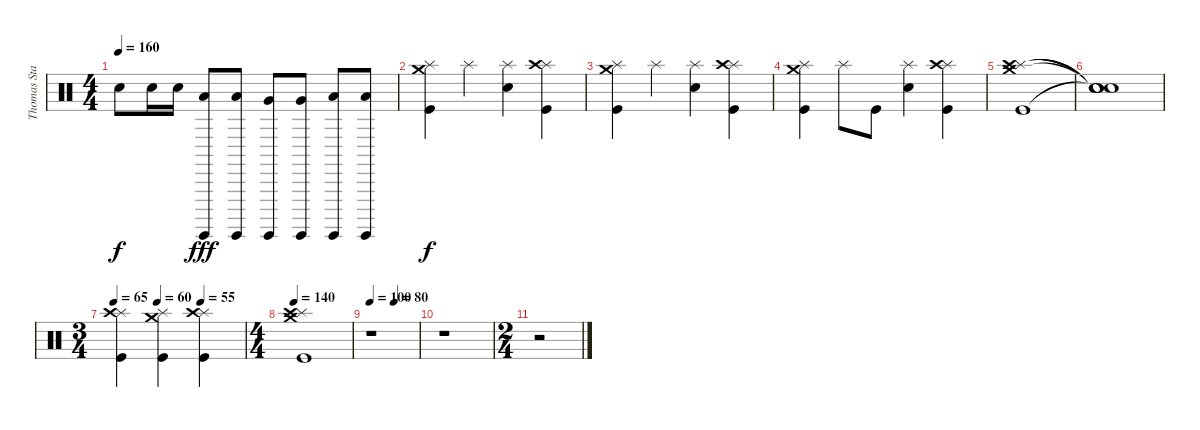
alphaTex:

\track ("Thomas Stauch" "Thomas Sta") {instrument percussion}
\staff {score}
\articulation defaults
\ts (4 4)
\tempo 160
\clef neutral
\ks c "Electric Snare (hit)".8{dy f} "Electric Snare (hit)".16 "Electric Snare (hit)".16
("Surdo (hit)" "Low Tom (hit)").8{dy fff} ("Surdo (hit)" "Low Tom (hit)").8 ("Surdo (hit)" "Very Low Tom (hit)").8 ("Surdo (hit)" "Very Low Tom (hit)").8 ("Surdo (hit)" "Low Floor Tom (hit)").8 ("Surdo (hit)" "Low Floor Tom (hit)").8 |
("Crash medium (hit)" "Splash (hit)" "Kick (hit)").4{dy f} "Splash (hit)".4 ("Splash (hit)" "Electric Snare (hit)").4 ("Splash (hit)" "Crash high (hit)" "Kick (hit)").4 |
("Crash medium (hit)" "Splash (hit)" "Kick (hit)").4 "Splash (hit)".4 ("Splash (hit)" "Electric Snare (hit)").4 ("Splash (hit)" "Crash high (hit)" "Kick (hit)").4 |
("Crash medium (hit)" "Splash (hit)" "Kick (hit)").4 "Splash (hit)".8 "Kick (hit)".8 ("Splash (hit)" "Electric Snare (hit)").4 ("Splash (hit)" "Crash high (hit)" "Kick (hit)").4 |
("Crash medium (hit)" "Splash (hit)" "Crash high (hit)" "Kick (hit)").1 |
("Snare (hit)"{t} "Snare (hit)"{t} "Snare (hit)"{t} "Snare (hit)"{t}).1 |
\ts (3 4)
\tempo 65
\tempo (60 0.3333333333333333)
\tempo (55 0.6666666666666666)
("Splash (hit)" "Crash high (hit)" "Kick (hit)").4 ("Crash medium (hit)" "Splash (hit)" "Kick (hit)").4 ("Splash (hit)" "Crash high (hit)" "Kick (hit)").4 |
\ts (4 4)
\tempo 140
("Crash medium (hit)" "Splash (hit)" "Crash high (hit)" "Kick (hit)").1 |
\tempo 100
\tempo (80 0.5)
r.1 |
r.1 |
\ts (2 4)
r.2
